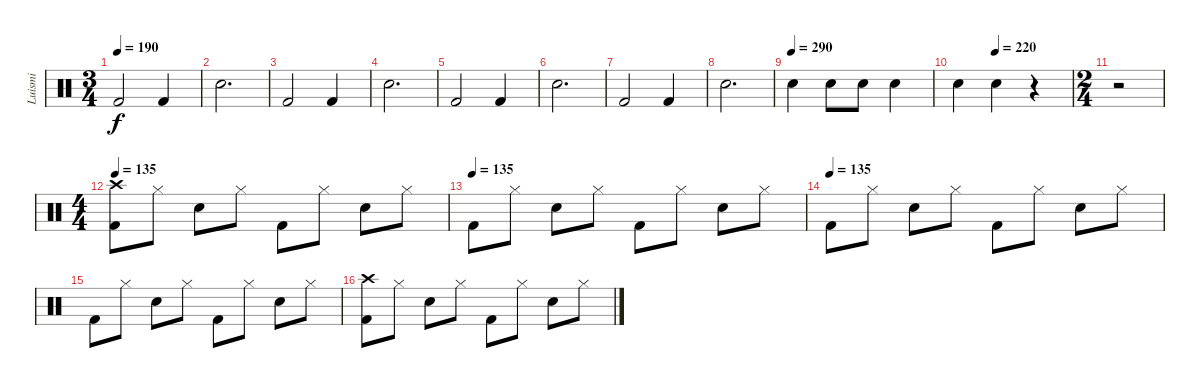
\track ("Luismi" "Luismi") {instrument percussion}
\staff {score}
\articulation defaults
\ts (3 4)
\tempo 190
\clef neutral
\ks c "Kick (hit) 2".2{dy f} "Kick (hit) 2".4
|
"Snare (hit) 2".2{d} |
"Kick (hit) 2".2 "Kick (hit) 2".4 |
"Snare (hit) 2".2{d} |
"Kick (hit) 2".2 "Kick (hit) 2".4 |
"Snare (hit) 2".2{d} |
"Kick (hit) 2".2 "Kick (hit) 2".4 |
"Snare (hit) 2".2{d} |
\tempo (290)
"Snare (hit) 2".4 "Snare (hit) 2".8 "Snare (hit) 2".8 "Snare (hit) 2".4 |
\tempo (220 0.3333333333333333)
"Snare (hit) 2".4 "Snare (hit) 2".4 r.4 |
\ts (2 4)
r.2 |
\ts (4 4)
\tempo 135
("Crash high (hit)" "Kick (hit) 2").8 "Hi-Hat (closed)".8 "Snare (hit) 2".8 "Hi-Hat (closed)".8 "Kick (hit) 2".8 "Hi-Hat (closed)".8 "Snare (hit) 2".8 "Hi-Hat (closed)".8 |
\tempo (135)
"Kick (hit) 2".8 "Hi-Hat (closed)".8 "Snare (hit) 2".8 "Hi-Hat (closed)".8 "Kick (hit) 2".8 "Hi-Hat (closed)".8 "Snare (hit) 2".8 "Hi-Hat (closed)".8 |
\tempo (135)
"Kick (hit) 2".8 "Hi-Hat (closed)".8 "Snare (hit) 2".8 "Hi-Hat (closed)".8 "Kick (hit) 2".8 "Hi-Hat (closed)".8 "Snare (hit) 2".8 "Hi-Hat (closed)".8 |
"Kick (hit) 2".8 "Hi-Hat (closed)".8 "Snare (hit) 2".8 "Hi-Hat (closed)".8 "Kick (hit) 2".8 "Hi-Hat (closed)".8 "Snare (hit) 2".8 "Hi-Hat (closed)".8 |
("Crash high (hit)" "Kick (hit) 2").8 "Hi-Hat (closed)".8 "Snare (hit) 2".8 "Hi-Hat (closed)".8 "Kick (hit) 2".8 "Hi-Hat (closed)".8 "Snare (hit) 2".8 "Hi-Hat (closed)".8
